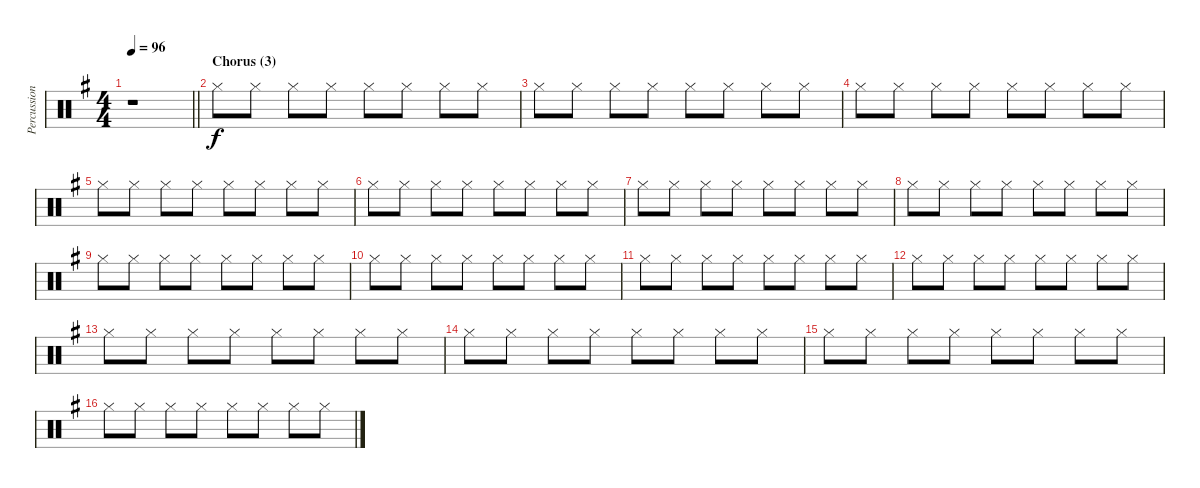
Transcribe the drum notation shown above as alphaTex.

\track ("Percussion" "Percussion") {instrument percussion}
\staff {score}
\articulation defaults
\ts (4 4)
\tempo 96
\clef neutral
\barLineRight lightlight
\ks eminor
r.1{dy f} |
\section ("" "Chorus (3)")
"Hi-Hat (closed)".8 "Hi-Hat (closed)".8 "Hi-Hat (closed)".8 "Hi-Hat (closed)".8 "Hi-Hat (closed)".8 "Hi-Hat (closed)".8 "Hi-Hat (closed)".8 "Hi-Hat (closed)".8 |
"Hi-Hat (closed)".8 "Hi-Hat (closed)".8 "Hi-Hat (closed)".8 "Hi-Hat (closed)".8 "Hi-Hat (closed)".8 "Hi-Hat (closed)".8 "Hi-Hat (closed)".8 "Hi-Hat (closed)".8 |
"Hi-Hat (closed)".8 "Hi-Hat (closed)".8 "Hi-Hat (closed)".8 "Hi-Hat (closed)".8 "Hi-Hat (closed)".8 "Hi-Hat (closed)".8 "Hi-Hat (closed)".8 "Hi-Hat (closed)".8 |
"Hi-Hat (closed)".8 "Hi-Hat (closed)".8 "Hi-Hat (closed)".8 "Hi-Hat (closed)".8 "Hi-Hat (closed)".8 "Hi-Hat (closed)".8 "Hi-Hat (closed)".8 "Hi-Hat (closed)".8 |
"Hi-Hat (closed)".8 "Hi-Hat (closed)".8 "Hi-Hat (closed)".8 "Hi-Hat (closed)".8 "Hi-Hat (closed)".8 "Hi-Hat (closed)".8 "Hi-Hat (closed)".8 "Hi-Hat (closed)".8 |
"Hi-Hat (closed)".8 "Hi-Hat (closed)".8 "Hi-Hat (closed)".8 "Hi-Hat (closed)".8 "Hi-Hat (closed)".8 "Hi-Hat (closed)".8 "Hi-Hat (closed)".8 "Hi-Hat (closed)".8 |
"Hi-Hat (closed)".8 "Hi-Hat (closed)".8 "Hi-Hat (closed)".8 "Hi-Hat (closed)".8 "Hi-Hat (closed)".8 "Hi-Hat (closed)".8 "Hi-Hat (closed)".8 "Hi-Hat (closed)".8 |
"Hi-Hat (closed)".8 "Hi-Hat (closed)".8 "Hi-Hat (closed)".8 "Hi-Hat (closed)".8 "Hi-Hat (closed)".8 "Hi-Hat (closed)".8 "Hi-Hat (closed)".8 "Hi-Hat (closed)".8 |
"Hi-Hat (closed)".8 "Hi-Hat (closed)".8 "Hi-Hat (closed)".8 "Hi-Hat (closed)".8 "Hi-Hat (closed)".8 "Hi-Hat (closed)".8 "Hi-Hat (closed)".8 "Hi-Hat (closed)".8 |
"Hi-Hat (closed)".8 "Hi-Hat (closed)".8 "Hi-Hat (closed)".8 "Hi-Hat (closed)".8 "Hi-Hat (closed)".8 "Hi-Hat (closed)".8 "Hi-Hat (closed)".8 "Hi-Hat (closed)".8 |
"Hi-Hat (closed)".8 "Hi-Hat (closed)".8 "Hi-Hat (closed)".8 "Hi-Hat (closed)".8 "Hi-Hat (closed)".8 "Hi-Hat (closed)".8 "Hi-Hat (closed)".8 "Hi-Hat (closed)".8 |
"Hi-Hat (closed)".8 "Hi-Hat (closed)".8 "Hi-Hat (closed)".8 "Hi-Hat (closed)".8 "Hi-Hat (closed)".8 "Hi-Hat (closed)".8 "Hi-Hat (closed)".8 "Hi-Hat (closed)".8 |
"Hi-Hat (closed)".8 "Hi-Hat (closed)".8 "Hi-Hat (closed)".8 "Hi-Hat (closed)".8 "Hi-Hat (closed)".8 "Hi-Hat (closed)".8 "Hi-Hat (closed)".8 "Hi-Hat (closed)".8 |
"Hi-Hat (closed)".8 "Hi-Hat (closed)".8 "Hi-Hat (closed)".8 "Hi-Hat (closed)".8 "Hi-Hat (closed)".8 "Hi-Hat (closed)".8 "Hi-Hat (closed)".8 "Hi-Hat (closed)".8 |
"Hi-Hat (closed)".8 "Hi-Hat (closed)".8 "Hi-Hat (closed)".8 "Hi-Hat (closed)".8 "Hi-Hat (closed)".8 "Hi-Hat (closed)".8 "Hi-Hat (closed)".8 "Hi-Hat (closed)".8
